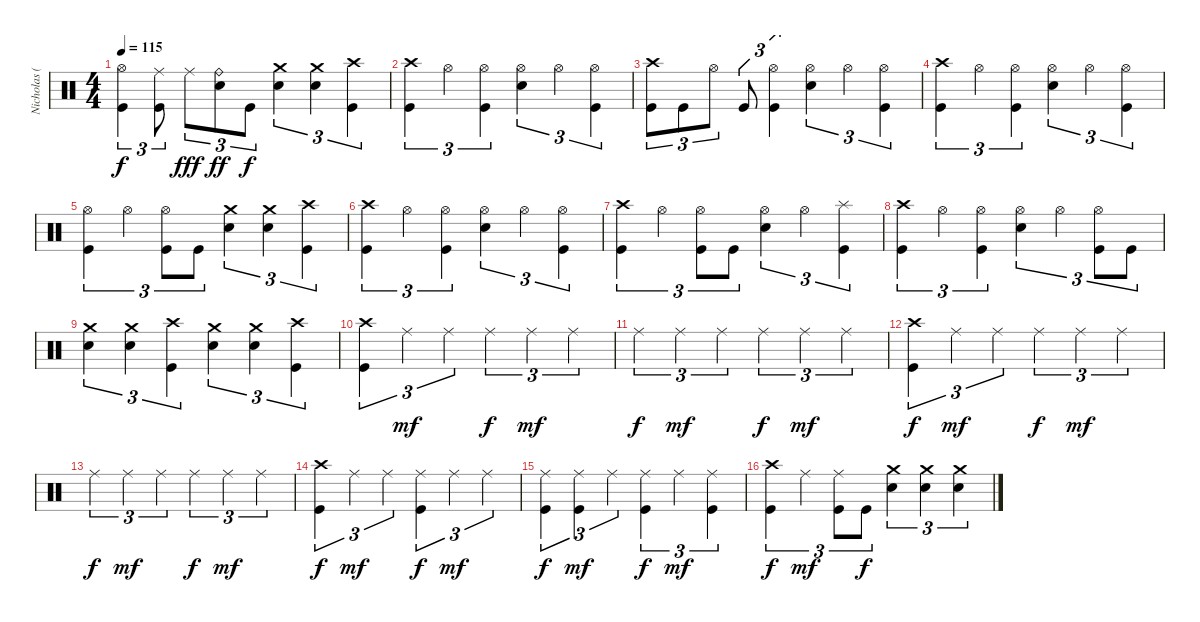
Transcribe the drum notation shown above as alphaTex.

\track ("Nicholas (Drums)" "Nicholas (") {instrument percussion}
\staff {score}
\articulation defaults
\ts (4 4)
\tempo 115
\clef neutral
\ks c
("Hi-Hat (open)" "Kick (hit)").4{tu (3 2) dy f} ("Ride (middle)" "Kick (hit)").8{tu (3 2)} "Ride (middle)".8{tu (3 2) dy fff} ("Ride (bell)" "Electric Snare (hit)").8{tu (3 2) dy ff} "Kick (hit)".8{tu (3 2) dy f} ("Crash medium (hit)" "Electric Snare (hit)").4{tu (3 2)} ("Crash medium (hit)" "Electric Snare (hit)").4{tu (3 2)} ("Crash high (hit)" "Kick (hit)").4{tu (3 2)} |
("Crash high (hit)" "Kick (hit)").4{tu (3 2)} "Hi-Hat (open)".4{tu (3 2)} ("Hi-Hat (open)" "Kick (hit)").4{tu (3 2)} ("Hi-Hat (open)" "Electric Snare (hit)").4{tu (3 2)} "Hi-Hat (open)".4{tu (3 2)} ("Hi-Hat (open)" "Kick (hit)").4{tu (3 2)} |
("Crash high (hit)" "Kick (hit)").8{tu (3 2)} "Kick (hit)".8{tu (3 2)} "Hi-Hat (open)".8{tu (3 2)} "Kick (hit)".8{tu (3 2)} ("Hi-Hat (open)" "Kick (hit)").4{tu (3 2)} ("Hi-Hat (open)" "Electric Snare (hit)").4{tu (3 2)} "Hi-Hat (open)".4{tu (3 2)} ("Hi-Hat (open)" "Kick (hit)").4{tu (3 2)} |
("Crash high (hit)" "Kick (hit)").4{tu (3 2)} "Hi-Hat (open)".4{tu (3 2)} ("Hi-Hat (open)" "Kick (hit)").4{tu (3 2)} ("Hi-Hat (open)" "Electric Snare (hit)").4{tu (3 2)} "Hi-Hat (open)".4{tu (3 2)} ("Hi-Hat (open)" "Kick (hit)").4{tu (3 2)} |
("Hi-Hat (open)" "Kick (hit)").4{tu (3 2)} "Hi-Hat (open)".4{tu (3 2)} ("Hi-Hat (open)" "Kick (hit)").8{tu (3 2)} "Kick (hit)".8{tu (3 2)} ("Crash medium (hit)" "Electric Snare (hit)").4{tu (3 2)} ("Crash medium (hit)" "Electric Snare (hit)").4{tu (3 2)} ("Crash high (hit)" "Kick (hit)").4{tu (3 2)} |
("Crash high (hit)" "Kick (hit)").4{tu (3 2)} "Hi-Hat (open)".4{tu (3 2)} ("Hi-Hat (open)" "Kick (hit)").4{tu (3 2)} ("Hi-Hat (open)" "Electric Snare (hit)").4{tu (3 2)} "Hi-Hat (open)".4{tu (3 2)} ("Hi-Hat (open)" "Kick (hit)").4{tu (3 2)} |
("Crash high (hit)" "Kick (hit)").4{tu (3 2)} "Hi-Hat (open)".4{tu (3 2)} ("Hi-Hat (open)" "Kick (hit)").8{tu (3 2)} "Kick (hit)".8{tu (3 2)} ("Hi-Hat (open)" "Electric Snare (hit)").4{tu (3 2)} "Hi-Hat (open)".4{tu (3 2)} ("Splash (hit)" "Kick (hit)").4{tu (3 2)} |
("Crash high (hit)" "Kick (hit)").4{tu (3 2)} "Hi-Hat (open)".4{tu (3 2)} ("Hi-Hat (open)" "Kick (hit)").4{tu (3 2)} ("Hi-Hat (open)" "Electric Snare (hit)").4{tu (3 2)} "Hi-Hat (open)".4{tu (3 2)} ("Hi-Hat (open)" "Kick (hit)").8{tu (3 2)} "Kick (hit)".8{tu (3 2)} |
("Crash medium (hit)" "Electric Snare (hit)").4{tu (3 2)} ("Crash medium (hit)" "Electric Snare (hit)").4{tu (3 2)} ("Crash high (hit)" "Kick (hit)").4{tu (3 2)} ("Crash medium (hit)" "Electric Snare (hit)").4{tu (3 2)} ("Crash medium (hit)" "Electric Snare (hit)").4{tu (3 2)} ("Crash high (hit)" "Kick (hit)").4{tu (3 2)} |
("Crash high (hit)" "Kick (hit)").4{tu (3 2)} "Ride (middle)".4{tu (3 2) dy mf} "Ride (middle)".4{tu (3 2)} "Ride (middle)".4{tu (3 2) dy f} "Ride (middle)".4{tu (3 2) dy mf} "Ride (middle)".4{tu (3 2)} |
"Ride (middle)".4{tu (3 2) dy f} "Ride (middle)".4{tu (3 2) dy mf} "Ride (middle)".4{tu (3 2)} "Ride (middle)".4{tu (3 2) dy f} "Ride (middle)".4{tu (3 2) dy mf} "Ride (middle)".4{tu (3 2)} |
("Crash high (hit)" "Kick (hit)").4{tu (3 2) dy f} "Ride (middle)".4{tu (3 2) dy mf} "Ride (middle)".4{tu (3 2)} "Ride (middle)".4{tu (3 2) dy f} "Ride (middle)".4{tu (3 2) dy mf} "Ride (middle)".4{tu (3 2)} |
"Ride (middle)".4{tu (3 2) dy f} "Ride (middle)".4{tu (3 2) dy mf} "Ride (middle)".4{tu (3 2)} "Ride (middle)".4{tu (3 2) dy f} "Ride (middle)".4{tu (3 2) dy mf} "Ride (middle)".4{tu (3 2)} |
("Crash high (hit)" "Kick (hit)").4{tu (3 2) dy f} "Ride (middle)".4{tu (3 2) dy mf} "Ride (middle)".4{tu (3 2)} ("Ride (middle)" "Kick (hit)").4{tu (3 2) dy f} "Ride (middle)".4{tu (3 2) dy mf} "Ride (middle)".4{tu (3 2)} |
("Ride (middle)" "Kick (hit)").4{tu (3 2) dy f} ("Ride (middle)" "Kick (hit)").4{tu (3 2) dy mf} "Ride (middle)".4{tu (3 2)} ("Ride (middle)" "Kick (hit)").4{tu (3 2) dy f} "Ride (middle)".4{tu (3 2) dy mf} ("Ride (middle)" "Kick (hit)").4{tu (3 2)} |
("Crash high (hit)" "Kick (hit)").4{tu (3 2) dy f} "Ride (middle)".4{tu (3 2) dy mf} ("Ride (middle)" "Kick (hit)").8{tu (3 2)} "Kick (hit)".8{tu (3 2) dy f} ("Crash medium (hit)" "Electric Snare (hit)").4{tu (3 2)} ("Crash medium (hit)" "Electric Snare (hit)").4{tu (3 2)} ("Crash medium (hit)" "Electric Snare (hit)").4{tu (3 2)}
